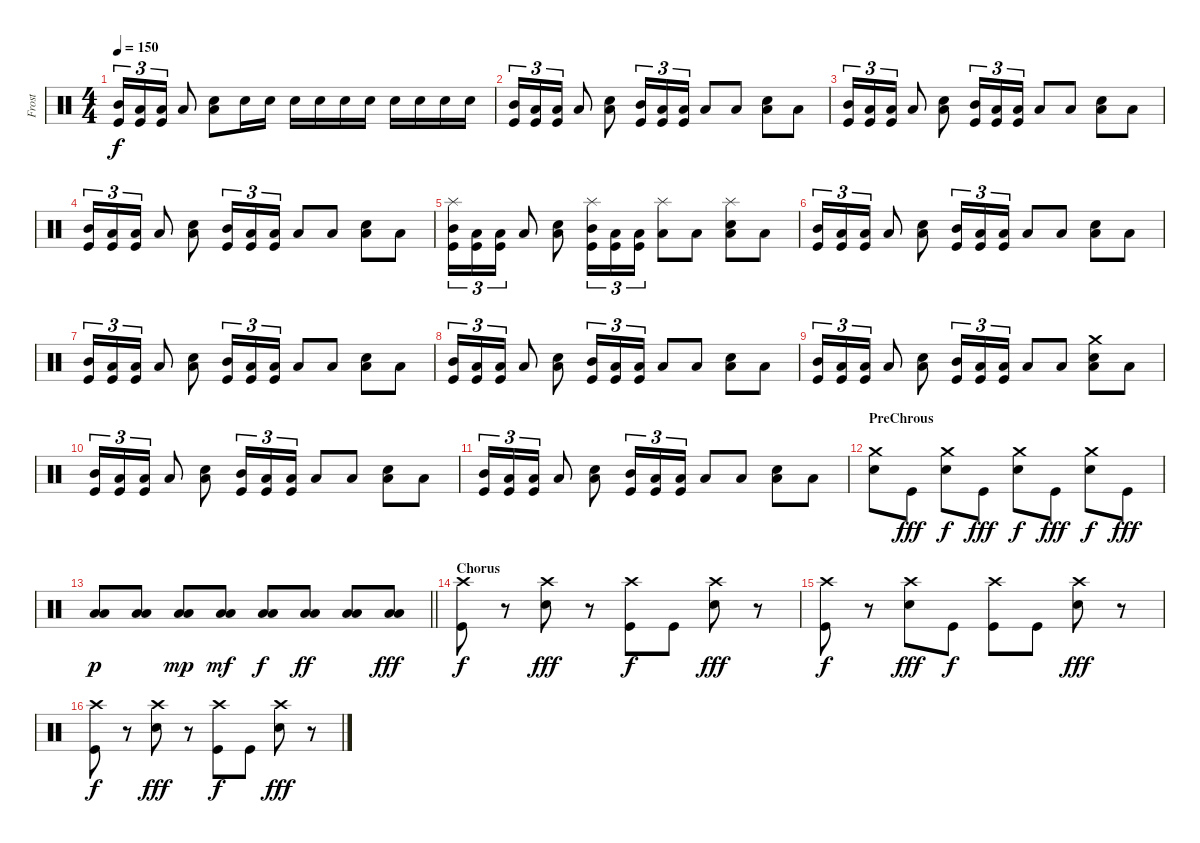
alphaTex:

\track ("Frost" "Frost") {instrument percussion}
\staff {score}
\articulation defaults
\ts (4 4)
\tempo 150
\clef neutral
\ks c
("Mid Tom (hit)" "Kick (hit)").16{tu (3 2) dy f} ("Low Tom (hit)" "Kick (hit)").16{tu (3 2)} ("Low Tom (hit)" "Kick (hit)").16{tu (3 2)} "Low Floor Tom (hit)".8 ("Low Floor Tom (hit)" "Electric Snare (hit)").8 "Electric Snare (hit)".16 "Electric Snare (hit)".16 "Electric Snare (hit)".16 "Electric Snare (hit)".16 "Electric Snare (hit)".16 "Electric Snare (hit)".16 "Electric Snare (hit)".16 "Electric Snare (hit)".16 "Electric Snare (hit)".16 "Electric Snare (hit)".16 |
("Mid Tom (hit)" "Kick (hit)").16{tu (3 2)} ("Low Tom (hit)" "Kick (hit)").16{tu (3 2)} ("Low Tom (hit)" "Kick (hit)").16{tu (3 2)} "Low Floor Tom (hit)".8 ("Low Floor Tom (hit)" "Electric Snare (hit)").8 ("Mid Tom (hit)" "Kick (hit)").16{tu (3 2)} ("Low Tom (hit)" "Kick (hit)").16{tu (3 2)} ("Low Tom (hit)" "Kick (hit)").16{tu (3 2)} "Low Floor Tom (hit)".8 "Low Floor Tom (hit)".8 ("Low Floor Tom (hit)" "Electric Snare (hit)").8 "Low Floor Tom (hit)".8 |
("Mid Tom (hit)" "Kick (hit)").16{tu (3 2)} ("Low Tom (hit)" "Kick (hit)").16{tu (3 2)} ("Low Tom (hit)" "Kick (hit)").16{tu (3 2)} "Low Floor Tom (hit)".8 ("Low Floor Tom (hit)" "Electric Snare (hit)").8 ("Mid Tom (hit)" "Kick (hit)").16{tu (3 2)} ("Low Tom (hit)" "Kick (hit)").16{tu (3 2)} ("Low Tom (hit)" "Kick (hit)").16{tu (3 2)} "Low Floor Tom (hit)".8 "Low Floor Tom (hit)".8 ("Low Floor Tom (hit)" "Electric Snare (hit)").8 "Low Floor Tom (hit)".8 |
("Mid Tom (hit)" "Kick (hit)").16{tu (3 2)} ("Low Tom (hit)" "Kick (hit)").16{tu (3 2)} ("Low Tom (hit)" "Kick (hit)").16{tu (3 2)} "Low Floor Tom (hit)".8 ("Low Floor Tom (hit)" "Electric Snare (hit)").8 ("Mid Tom (hit)" "Kick (hit)").16{tu (3 2)} ("Low Tom (hit)" "Kick (hit)").16{tu (3 2)} ("Low Tom (hit)" "Kick (hit)").16{tu (3 2)} "Low Floor Tom (hit)".8 "Low Floor Tom (hit)".8 ("Low Floor Tom (hit)" "Electric Snare (hit)").8 "Low Floor Tom (hit)".8 |
("Mid Tom (hit)" "Kick (hit)" "Splash (hit)").16{tu (3 2)} ("Low Tom (hit)" "Kick (hit)").16{tu (3 2)} ("Low Tom (hit)" "Kick (hit)").16{tu (3 2)} "Low Floor Tom (hit)".8 ("Low Floor Tom (hit)" "Electric Snare (hit)").8 ("Mid Tom (hit)" "Kick (hit)" "Splash (hit)").16{tu (3 2)} ("Low Tom (hit)" "Kick (hit)").16{tu (3 2)} ("Low Tom (hit)" "Kick (hit)").16{tu (3 2)} ("Low Floor Tom (hit)" "Splash (hit)").8 "Low Floor Tom (hit)".8 ("Low Floor Tom (hit)" "Splash (hit)" "Electric Snare (hit)").8 "Low Floor Tom (hit)".8 |
("Mid Tom (hit)" "Kick (hit)").16{tu (3 2)} ("Low Tom (hit)" "Kick (hit)").16{tu (3 2)} ("Low Tom (hit)" "Kick (hit)").16{tu (3 2)} "Low Floor Tom (hit)".8 ("Low Floor Tom (hit)" "Electric Snare (hit)").8 ("Mid Tom (hit)" "Kick (hit)").16{tu (3 2)} ("Low Tom (hit)" "Kick (hit)").16{tu (3 2)} ("Low Tom (hit)" "Kick (hit)").16{tu (3 2)} "Low Floor Tom (hit)".8 "Low Floor Tom (hit)".8 ("Low Floor Tom (hit)" "Electric Snare (hit)").8 "Low Floor Tom (hit)".8 |
("Mid Tom (hit)" "Kick (hit)").16{tu (3 2)} ("Low Tom (hit)" "Kick (hit)").16{tu (3 2)} ("Low Tom (hit)" "Kick (hit)").16{tu (3 2)} "Low Floor Tom (hit)".8 ("Low Floor Tom (hit)" "Electric Snare (hit)").8 ("Mid Tom (hit)" "Kick (hit)").16{tu (3 2)} ("Low Tom (hit)" "Kick (hit)").16{tu (3 2)} ("Low Tom (hit)" "Kick (hit)").16{tu (3 2)} "Low Floor Tom (hit)".8 "Low Floor Tom (hit)".8 ("Low Floor Tom (hit)" "Electric Snare (hit)").8 "Low Floor Tom (hit)".8 |
("Mid Tom (hit)" "Kick (hit)").16{tu (3 2)} ("Low Tom (hit)" "Kick (hit)").16{tu (3 2)} ("Low Tom (hit)" "Kick (hit)").16{tu (3 2)} "Low Floor Tom (hit)".8 ("Low Floor Tom (hit)" "Electric Snare (hit)").8 ("Mid Tom (hit)" "Kick (hit)").16{tu (3 2)} ("Low Tom (hit)" "Kick (hit)").16{tu (3 2)} ("Low Tom (hit)" "Kick (hit)").16{tu (3 2)} "Low Floor Tom (hit)".8 "Low Floor Tom (hit)".8 ("Low Floor Tom (hit)" "Electric Snare (hit)").8 "Low Floor Tom (hit)".8 |
("Mid Tom (hit)" "Kick (hit)").16{tu (3 2)} ("Low Tom (hit)" "Kick (hit)").16{tu (3 2)} ("Low Tom (hit)" "Kick (hit)").16{tu (3 2)} "Low Floor Tom (hit)".8 ("Low Floor Tom (hit)" "Electric Snare (hit)").8 ("Mid Tom (hit)" "Kick (hit)").16{tu (3 2)} ("Low Tom (hit)" "Kick (hit)").16{tu (3 2)} ("Low Tom (hit)" "Kick (hit)").16{tu (3 2)} "Low Floor Tom (hit)".8 "Low Floor Tom (hit)".8 ("Low Floor Tom (hit)" "Crash medium (hit)" "Electric Snare (hit)").8 "Low Floor Tom (hit)".8 |
("Mid Tom (hit)" "Kick (hit)").16{tu (3 2)} ("Low Tom (hit)" "Kick (hit)").16{tu (3 2)} ("Low Tom (hit)" "Kick (hit)").16{tu (3 2)} "Low Floor Tom (hit)".8 ("Low Floor Tom (hit)" "Electric Snare (hit)").8 ("Mid Tom (hit)" "Kick (hit)").16{tu (3 2)} ("Low Tom (hit)" "Kick (hit)").16{tu (3 2)} ("Low Tom (hit)" "Kick (hit)").16{tu (3 2)} "Low Floor Tom (hit)".8 "Low Floor Tom (hit)".8 ("Low Floor Tom (hit)" "Electric Snare (hit)").8 "Low Floor Tom (hit)".8 |
("Mid Tom (hit)" "Kick (hit)").16{tu (3 2)} ("Low Tom (hit)" "Kick (hit)").16{tu (3 2)} ("Low Tom (hit)" "Kick (hit)").16{tu (3 2)} "Low Floor Tom (hit)".8 ("Low Floor Tom (hit)" "Electric Snare (hit)").8 ("Mid Tom (hit)" "Kick (hit)").16{tu (3 2)} ("Low Tom (hit)" "Kick (hit)").16{tu (3 2)} ("Low Tom (hit)" "Kick (hit)").16{tu (3 2)} "Low Floor Tom (hit)".8 "Low Floor Tom (hit)".8 ("Low Floor Tom (hit)" "Electric Snare (hit)").8 "Low Floor Tom (hit)".8 |
\section ("" "PreChrous")
("Crash medium (hit)" "Electric Snare (hit)").8 "Kick (hit)".8{dy fff} ("Crash medium (hit)" "Electric Snare (hit)").8{dy f} "Kick (hit)".8{dy fff} ("Crash medium (hit)" "Electric Snare (hit)").8{dy f} "Kick (hit)".8{dy fff} ("Crash medium (hit)" "Electric Snare (hit)").8{dy f} "Kick (hit)".8{dy fff} |
\barLineRight lightlight
("Low Tom (hit)" "Low Floor Tom (hit)").8{dy p} ("Low Tom (hit)" "Low Floor Tom (hit)").8 ("Low Tom (hit)" "Low Floor Tom (hit)").8{dy mp} ("Low Tom (hit)" "Low Floor Tom (hit)").8{dy mf} ("Low Tom (hit)" "Low Floor Tom (hit)").8{dy f} ("Low Tom (hit)" "Low Floor Tom (hit)").8{dy ff} ("Low Tom (hit)" "Low Floor Tom (hit)").8 ("Low Tom (hit)" "Low Floor Tom (hit)").8{dy fff} |
\section ("" "Chorus")
("Kick (hit)" "Crash high (hit)").8{dy f} r.8 ("Electric Snare (hit)" "Crash high (hit)").8{dy fff} r.8 ("Kick (hit)" "Crash high (hit)").8{dy f} "Kick (hit)".8 ("Electric Snare (hit)" "Crash high (hit)").8{dy fff} r.8 |
("Kick (hit)" "Crash high (hit)").8{dy f} r.8 ("Electric Snare (hit)" "Crash high (hit)").8{dy fff} "Kick (hit)".8{dy f} ("Kick (hit)" "Crash high (hit)").8 "Kick (hit)".8 ("Electric Snare (hit)" "Crash high (hit)").8{dy fff} r.8 |
("Kick (hit)" "Crash high (hit)").8{dy f} r.8 ("Electric Snare (hit)" "Crash high (hit)").8{dy fff} r.8 ("Kick (hit)" "Crash high (hit)").8{dy f} "Kick (hit)".8 ("Electric Snare (hit)" "Crash high (hit)").8{dy fff} r.8
